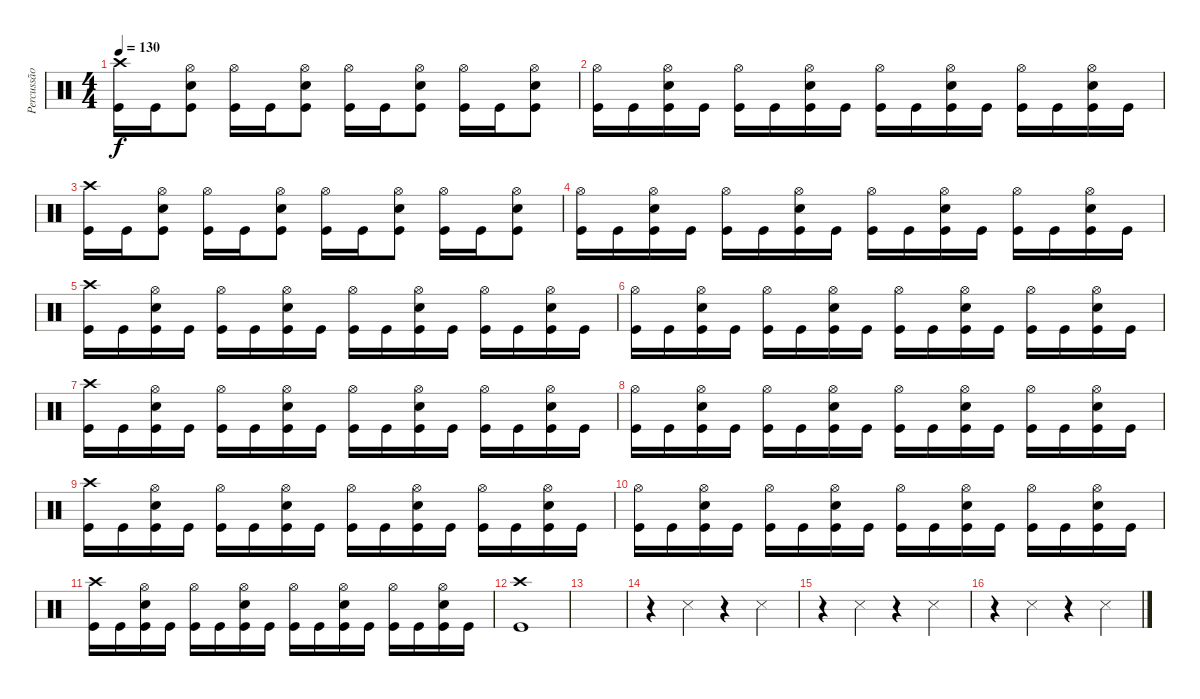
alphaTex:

\track ("Percussão" "Percussão") {instrument percussion}
\staff {score}
\articulation defaults
\ts (4 4)
\tempo 130
\clef neutral
\ks c
("Crash high (hit)" "Kick (hit)").16{dy f} "Kick (hit)".16 ("Hi-Hat (open)" "Snare (hit) 2" "Kick (hit)").8 ("Hi-Hat (open)" "Kick (hit)").16 "Kick (hit)".16 ("Hi-Hat (open)" "Snare (hit) 2" "Kick (hit)").8 ("Hi-Hat (open)" "Kick (hit)").16 "Kick (hit)".16 ("Hi-Hat (open)" "Snare (hit) 2" "Kick (hit)").8 ("Hi-Hat (open)" "Kick (hit)").16 "Kick (hit)".16 ("Hi-Hat (open)" "Snare (hit) 2" "Kick (hit)").8 |
("Hi-Hat (open)" "Kick (hit)").16 "Kick (hit)".16 ("Hi-Hat (open)" "Snare (hit) 2" "Kick (hit)").16 "Kick (hit)".16 ("Hi-Hat (open)" "Kick (hit)").16 "Kick (hit)".16 ("Hi-Hat (open)" "Snare (hit) 2" "Kick (hit)").16 "Kick (hit)".16 ("Hi-Hat (open)" "Kick (hit)").16 "Kick (hit)".16 ("Hi-Hat (open)" "Snare (hit) 2" "Kick (hit)").16 "Kick (hit)".16 ("Hi-Hat (open)" "Kick (hit)").16 "Kick (hit)".16 ("Hi-Hat (open)" "Snare (hit) 2" "Kick (hit)").16 "Kick (hit)".16 |
("Crash high (hit)" "Kick (hit)").16 "Kick (hit)".16 ("Hi-Hat (open)" "Snare (hit) 2" "Kick (hit)").8 ("Hi-Hat (open)" "Kick (hit)").16 "Kick (hit)".16 ("Hi-Hat (open)" "Snare (hit) 2" "Kick (hit)").8 ("Hi-Hat (open)" "Kick (hit)").16 "Kick (hit)".16 ("Hi-Hat (open)" "Snare (hit) 2" "Kick (hit)").8 ("Hi-Hat (open)" "Kick (hit)").16 "Kick (hit)".16 ("Hi-Hat (open)" "Snare (hit) 2" "Kick (hit)").8 |
("Hi-Hat (open)" "Kick (hit)").16 "Kick (hit)".16 ("Hi-Hat (open)" "Snare (hit) 2" "Kick (hit)").16 "Kick (hit)".16 ("Hi-Hat (open)" "Kick (hit)").16 "Kick (hit)".16 ("Hi-Hat (open)" "Snare (hit) 2" "Kick (hit)").16 "Kick (hit)".16 ("Hi-Hat (open)" "Kick (hit)").16 "Kick (hit)".16 ("Hi-Hat (open)" "Snare (hit) 2" "Kick (hit)").16 "Kick (hit)".16 ("Hi-Hat (open)" "Kick (hit)").16 "Kick (hit)".16 ("Hi-Hat (open)" "Snare (hit) 2" "Kick (hit)").16 "Kick (hit)".16 |
("Crash high (hit)" "Kick (hit)").16 "Kick (hit)".16 ("Hi-Hat (open)" "Snare (hit) 2" "Kick (hit)").16 "Kick (hit)".16 ("Hi-Hat (open)" "Kick (hit)").16 "Kick (hit)".16 ("Hi-Hat (open)" "Snare (hit) 2" "Kick (hit)").16 "Kick (hit)".16 ("Hi-Hat (open)" "Kick (hit)").16 "Kick (hit)".16 ("Hi-Hat (open)" "Snare (hit) 2" "Kick (hit)").16 "Kick (hit)".16 ("Hi-Hat (open)" "Kick (hit)").16 "Kick (hit)".16 ("Hi-Hat (open)" "Snare (hit) 2" "Kick (hit)").16 "Kick (hit)".16 |
("Hi-Hat (open)" "Kick (hit)").16 "Kick (hit)".16 ("Hi-Hat (open)" "Snare (hit) 2" "Kick (hit)").16 "Kick (hit)".16 ("Hi-Hat (open)" "Kick (hit)").16 "Kick (hit)".16 ("Hi-Hat (open)" "Snare (hit) 2" "Kick (hit)").16 "Kick (hit)".16 ("Hi-Hat (open)" "Kick (hit)").16 "Kick (hit)".16 ("Hi-Hat (open)" "Snare (hit) 2" "Kick (hit)").16 "Kick (hit)".16 ("Hi-Hat (open)" "Kick (hit)").16 "Kick (hit)".16 ("Hi-Hat (open)" "Snare (hit) 2" "Kick (hit)").16 "Kick (hit)".16 |
("Crash high (hit)" "Kick (hit)").16 "Kick (hit)".16 ("Hi-Hat (open)" "Snare (hit) 2" "Kick (hit)").16 "Kick (hit)".16 ("Hi-Hat (open)" "Kick (hit)").16 "Kick (hit)".16 ("Hi-Hat (open)" "Snare (hit) 2" "Kick (hit)").16 "Kick (hit)".16 ("Hi-Hat (open)" "Kick (hit)").16 "Kick (hit)".16 ("Hi-Hat (open)" "Snare (hit) 2" "Kick (hit)").16 "Kick (hit)".16 ("Hi-Hat (open)" "Kick (hit)").16 "Kick (hit)".16 ("Hi-Hat (open)" "Snare (hit) 2" "Kick (hit)").16 "Kick (hit)".16 |
("Hi-Hat (open)" "Kick (hit)").16 "Kick (hit)".16 ("Hi-Hat (open)" "Snare (hit) 2" "Kick (hit)").16 "Kick (hit)".16 ("Hi-Hat (open)" "Kick (hit)").16 "Kick (hit)".16 ("Hi-Hat (open)" "Snare (hit) 2" "Kick (hit)").16 "Kick (hit)".16 ("Hi-Hat (open)" "Kick (hit)").16 "Kick (hit)".16 ("Hi-Hat (open)" "Snare (hit) 2" "Kick (hit)").16 "Kick (hit)".16 ("Hi-Hat (open)" "Kick (hit)").16 "Kick (hit)".16 ("Hi-Hat (open)" "Snare (hit) 2" "Kick (hit)").16 "Kick (hit)".16 |
("Crash high (hit)" "Kick (hit)").16 "Kick (hit)".16 ("Hi-Hat (open)" "Snare (hit) 2" "Kick (hit)").16 "Kick (hit)".16 ("Hi-Hat (open)" "Kick (hit)").16 "Kick (hit)".16 ("Hi-Hat (open)" "Snare (hit) 2" "Kick (hit)").16 "Kick (hit)".16 ("Hi-Hat (open)" "Kick (hit)").16 "Kick (hit)".16 ("Hi-Hat (open)" "Snare (hit) 2" "Kick (hit)").16 "Kick (hit)".16 ("Hi-Hat (open)" "Kick (hit)").16 "Kick (hit)".16 ("Hi-Hat (open)" "Snare (hit) 2" "Kick (hit)").16 "Kick (hit)".16 |
("Hi-Hat (open)" "Kick (hit)").16 "Kick (hit)".16 ("Hi-Hat (open)" "Snare (hit) 2" "Kick (hit)").16 "Kick (hit)".16 ("Hi-Hat (open)" "Kick (hit)").16 "Kick (hit)".16 ("Hi-Hat (open)" "Snare (hit) 2" "Kick (hit)").16 "Kick (hit)".16 ("Hi-Hat (open)" "Kick (hit)").16 "Kick (hit)".16 ("Hi-Hat (open)" "Snare (hit) 2" "Kick (hit)").16 "Kick (hit)".16 ("Hi-Hat (open)" "Kick (hit)").16 "Kick (hit)".16 ("Hi-Hat (open)" "Snare (hit) 2" "Kick (hit)").16 "Kick (hit)".16 |
("Crash high (hit)" "Kick (hit)").16 "Kick (hit)".16 ("Hi-Hat (open)" "Snare (hit) 2" "Kick (hit)").16 "Kick (hit)".16 ("Hi-Hat (open)" "Kick (hit)").16 "Kick (hit)".16 ("Hi-Hat (open)" "Snare (hit) 2" "Kick (hit)").16 "Kick (hit)".16 ("Hi-Hat (open)" "Kick (hit)").16 "Kick (hit)".16 ("Hi-Hat (open)" "Snare (hit) 2" "Kick (hit)").16 "Kick (hit)".16 ("Hi-Hat (open)" "Kick (hit)").16 "Kick (hit)".16 ("Hi-Hat (open)" "Snare (hit) 2" "Kick (hit)").16 "Kick (hit)".16 |
("Crash high (hit)" "Kick (hit)").1 |
|
r.4 "Snare (side stick) 3".4 r.4 "Snare (side stick) 3".4 |
r.4 "Snare (side stick) 3".4 r.4 "Snare (side stick) 3".4 |
r.4 "Snare (side stick) 3".4 r.4 "Snare (side stick) 3".4
